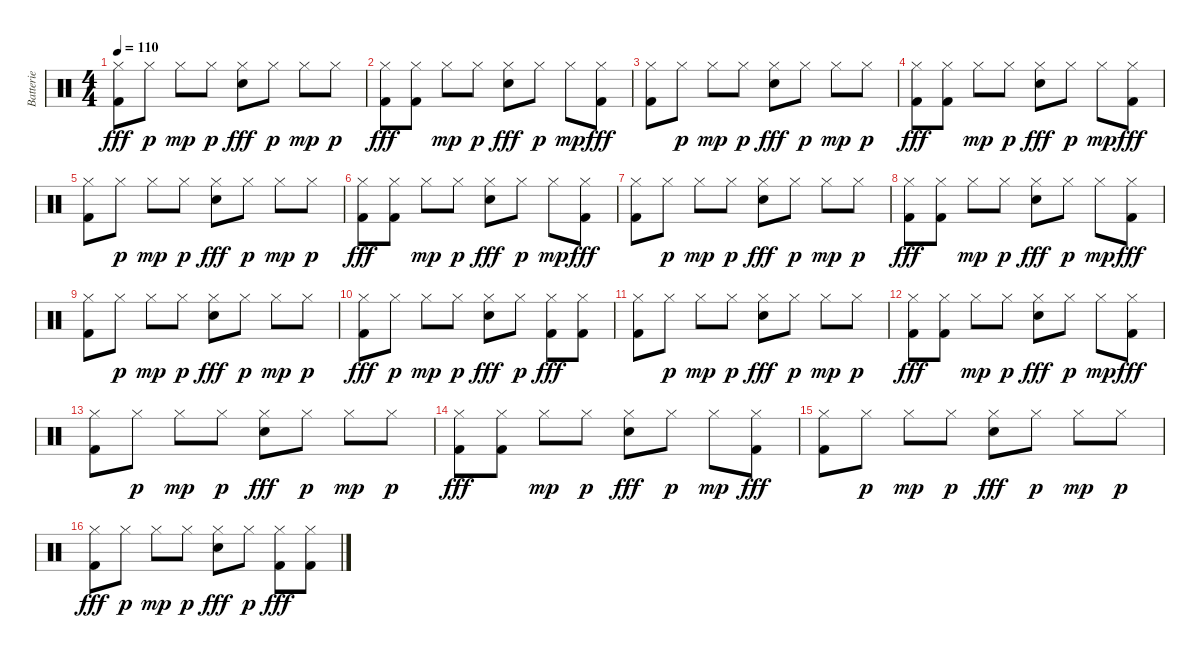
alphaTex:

\track ("Batterie" "Batterie") {instrument percussion}
\staff {score}
\articulation defaults
\ts (4 4)
\tempo 110
\clef neutral
\ks c
("Hi-Hat (closed)" "Kick (hit) 2").8{dy fff} "Hi-Hat (closed)".8{dy p} "Hi-Hat (closed)".8{dy mp} "Hi-Hat (closed)".8{dy p} ("Hi-Hat (closed)" "Electric Snare (hit)").8{dy fff} "Hi-Hat (closed)".8{dy p} "Hi-Hat (closed)".8{dy mp} "Hi-Hat (closed)".8{dy p} |
("Hi-Hat (closed)" "Kick (hit) 2").8{dy fff} ("Hi-Hat (closed)" "Kick (hit) 2").8 "Hi-Hat (closed)".8{dy mp} "Hi-Hat (closed)".8{dy p} ("Hi-Hat (closed)" "Electric Snare (hit)").8{dy fff} "Hi-Hat (closed)".8{dy p} "Hi-Hat (closed)".8{dy mp} ("Hi-Hat (closed)" "Kick (hit) 2").8{dy fff} |
("Hi-Hat (closed)" "Kick (hit) 2").8 "Hi-Hat (closed)".8{dy p} "Hi-Hat (closed)".8{dy mp} "Hi-Hat (closed)".8{dy p} ("Hi-Hat (closed)" "Electric Snare (hit)").8{dy fff} "Hi-Hat (closed)".8{dy p} "Hi-Hat (closed)".8{dy mp} "Hi-Hat (closed)".8{dy p} |
("Hi-Hat (closed)" "Kick (hit) 2").8{dy fff} ("Hi-Hat (closed)" "Kick (hit) 2").8 "Hi-Hat (closed)".8{dy mp} "Hi-Hat (closed)".8{dy p} ("Hi-Hat (closed)" "Electric Snare (hit)").8{dy fff} "Hi-Hat (closed)".8{dy p} "Hi-Hat (closed)".8{dy mp} ("Hi-Hat (closed)" "Kick (hit) 2").8{dy fff} |
("Hi-Hat (closed)" "Kick (hit) 2").8 "Hi-Hat (closed)".8{dy p} "Hi-Hat (closed)".8{dy mp} "Hi-Hat (closed)".8{dy p} ("Hi-Hat (closed)" "Electric Snare (hit)").8{dy fff} "Hi-Hat (closed)".8{dy p} "Hi-Hat (closed)".8{dy mp} "Hi-Hat (closed)".8{dy p} |
("Hi-Hat (closed)" "Kick (hit) 2").8{dy fff} ("Hi-Hat (closed)" "Kick (hit) 2").8 "Hi-Hat (closed)".8{dy mp} "Hi-Hat (closed)".8{dy p} ("Hi-Hat (closed)" "Electric Snare (hit)").8{dy fff} "Hi-Hat (closed)".8{dy p} "Hi-Hat (closed)".8{dy mp} ("Hi-Hat (closed)" "Kick (hit) 2").8{dy fff} |
("Hi-Hat (closed)" "Kick (hit) 2").8 "Hi-Hat (closed)".8{dy p} "Hi-Hat (closed)".8{dy mp} "Hi-Hat (closed)".8{dy p} ("Hi-Hat (closed)" "Electric Snare (hit)").8{dy fff} "Hi-Hat (closed)".8{dy p} "Hi-Hat (closed)".8{dy mp} "Hi-Hat (closed)".8{dy p} |
("Hi-Hat (closed)" "Kick (hit) 2").8{dy fff} ("Hi-Hat (closed)" "Kick (hit) 2").8 "Hi-Hat (closed)".8{dy mp} "Hi-Hat (closed)".8{dy p} ("Hi-Hat (closed)" "Electric Snare (hit)").8{dy fff} "Hi-Hat (closed)".8{dy p} "Hi-Hat (closed)".8{dy mp} ("Hi-Hat (closed)" "Kick (hit) 2").8{dy fff} |
("Hi-Hat (closed)" "Kick (hit) 2").8 "Hi-Hat (closed)".8{dy p} "Hi-Hat (closed)".8{dy mp} "Hi-Hat (closed)".8{dy p} ("Hi-Hat (closed)" "Electric Snare (hit)").8{dy fff} "Hi-Hat (closed)".8{dy p} "Hi-Hat (closed)".8{dy mp} "Hi-Hat (closed)".8{dy p} |
("Hi-Hat (closed)" "Kick (hit) 2").8{dy fff} "Hi-Hat (closed)".8{dy p} "Hi-Hat (closed)".8{dy mp} "Hi-Hat (closed)".8{dy p} ("Hi-Hat (closed)" "Electric Snare (hit)").8{dy fff} "Hi-Hat (closed)".8{dy p} ("Hi-Hat (closed)" "Kick (hit) 2").8{dy fff} ("Hi-Hat (closed)" "Kick (hit) 2").8 |
("Hi-Hat (closed)" "Kick (hit) 2").8 "Hi-Hat (closed)".8{dy p} "Hi-Hat (closed)".8{dy mp} "Hi-Hat (closed)".8{dy p} ("Hi-Hat (closed)" "Electric Snare (hit)").8{dy fff} "Hi-Hat (closed)".8{dy p} "Hi-Hat (closed)".8{dy mp} "Hi-Hat (closed)".8{dy p} |
("Hi-Hat (closed)" "Kick (hit) 2").8{dy fff} ("Hi-Hat (closed)" "Kick (hit) 2").8 "Hi-Hat (closed)".8{dy mp} "Hi-Hat (closed)".8{dy p} ("Hi-Hat (closed)" "Electric Snare (hit)").8{dy fff} "Hi-Hat (closed)".8{dy p} "Hi-Hat (closed)".8{dy mp} ("Hi-Hat (closed)" "Kick (hit) 2").8{dy fff} |
("Hi-Hat (closed)" "Kick (hit) 2").8 "Hi-Hat (closed)".8{dy p} "Hi-Hat (closed)".8{dy mp} "Hi-Hat (closed)".8{dy p} ("Hi-Hat (closed)" "Electric Snare (hit)").8{dy fff} "Hi-Hat (closed)".8{dy p} "Hi-Hat (closed)".8{dy mp} "Hi-Hat (closed)".8{dy p} |
("Hi-Hat (closed)" "Kick (hit) 2").8{dy fff} ("Hi-Hat (closed)" "Kick (hit) 2").8 "Hi-Hat (closed)".8{dy mp} "Hi-Hat (closed)".8{dy p} ("Hi-Hat (closed)" "Electric Snare (hit)").8{dy fff} "Hi-Hat (closed)".8{dy p} "Hi-Hat (closed)".8{dy mp} ("Hi-Hat (closed)" "Kick (hit) 2").8{dy fff} |
("Hi-Hat (closed)" "Kick (hit) 2").8 "Hi-Hat (closed)".8{dy p} "Hi-Hat (closed)".8{dy mp} "Hi-Hat (closed)".8{dy p} ("Hi-Hat (closed)" "Electric Snare (hit)").8{dy fff} "Hi-Hat (closed)".8{dy p} "Hi-Hat (closed)".8{dy mp} "Hi-Hat (closed)".8{dy p} |
("Hi-Hat (closed)" "Kick (hit) 2").8{dy fff} "Hi-Hat (closed)".8{dy p} "Hi-Hat (closed)".8{dy mp} "Hi-Hat (closed)".8{dy p} ("Hi-Hat (closed)" "Electric Snare (hit)").8{dy fff} "Hi-Hat (closed)".8{dy p} ("Hi-Hat (closed)" "Kick (hit) 2").8{dy fff} ("Hi-Hat (closed)" "Kick (hit) 2").8
